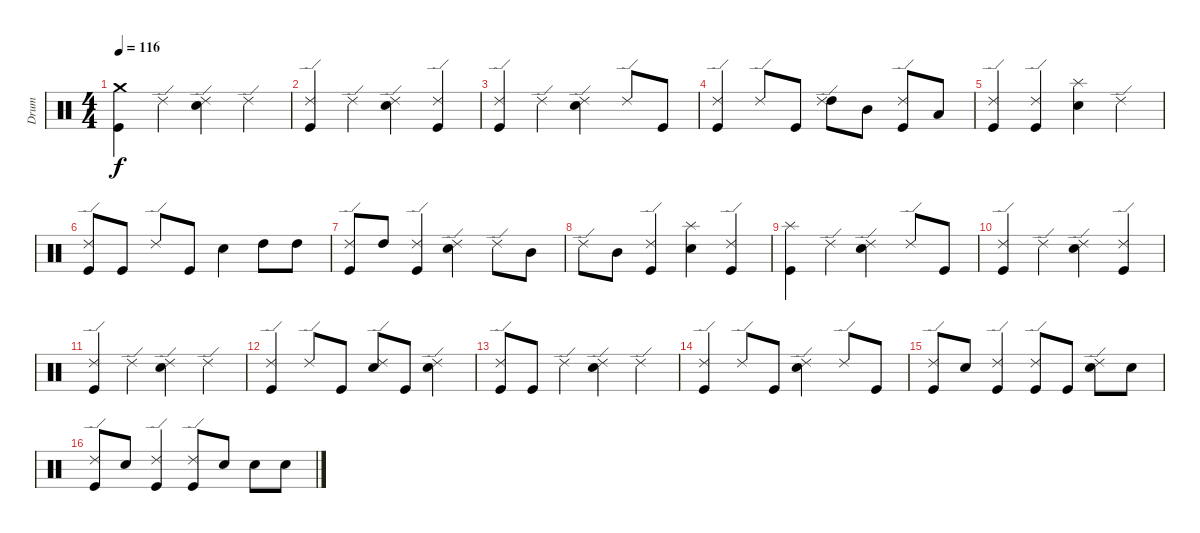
\track ("Drum" "Drum") {instrument percussion}
\staff {score}
\articulation defaults
\ts (4 4)
\tempo 116
\clef neutral
\ks c
("Kick (hit)" "Crash medium (hit)").4{dy f} "Ride (edge) 2".4 ("Electric Snare (hit)" "Ride (edge) 2").4 "Ride (edge) 2".4 |
("Kick (hit)" "Ride (edge) 2").4 "Ride (edge) 2".4 ("Electric Snare (hit)" "Ride (edge) 2").4 ("Kick (hit)" "Ride (edge) 2").4 |
("Kick (hit)" "Ride (edge) 2").4 "Ride (edge) 2".4 ("Electric Snare (hit)" "Ride (edge) 2").4 "Ride (edge) 2".8 "Kick (hit)".8 |
("Kick (hit)" "Ride (edge) 2").4 "Ride (edge) 2".8 "Kick (hit)".8 ("High Tom (hit)" "Ride (edge) 2").8 "Mid Tom (hit)".8 ("Kick (hit)" "Ride (edge) 2").8 "Low Tom (hit)".8 |
("Kick (hit)" "Ride (edge) 2").4 ("Kick (hit)" "Ride (edge) 2").4 ("Electric Snare (hit)" "Splash (hit)").4 "Ride (edge) 2".4 |
("Kick (hit)" "Ride (edge) 2").8 "Kick (hit)".8 "Ride (edge) 2".8 "Kick (hit)".8 "Electric Snare (hit)".4 "High Tom (hit)".8 "High Tom (hit)".8 |
("Kick (hit)" "Ride (edge) 2").8 "High Tom (hit)".8 ("Kick (hit)" "Ride (edge) 2").4 ("Electric Snare (hit)" "Ride (edge) 2").4 "Ride (edge) 2".8 "Mid Tom (hit)".8 |
"Ride (edge) 2".8 "Mid Tom (hit)".8 ("Kick (hit)" "Ride (edge) 2").4 ("Electric Snare (hit)" "Splash (hit)").4 ("Kick (hit)" "Ride (edge) 2").4 |
("Kick (hit)" "Splash (hit)").4 "Ride (edge) 2".4 ("Electric Snare (hit)" "Ride (edge) 2").4 "Ride (edge) 2".8 "Kick (hit)".8 |
("Kick (hit)" "Ride (edge) 2").4 "Ride (edge) 2".4 ("Electric Snare (hit)" "Ride (edge) 2").4 ("Kick (hit)" "Ride (edge) 2").4 |
("Kick (hit)" "Ride (edge) 2").4 "Ride (edge) 2".4 ("Electric Snare (hit)" "Ride (edge) 2").4 "Ride (edge) 2".4 |
("Kick (hit)" "Ride (edge) 2").4 "Ride (edge) 2".8 "Kick (hit)".8 ("Electric Snare (hit)" "Ride (edge) 2").8 "Kick (hit)".8 ("Electric Snare (hit)" "Ride (edge) 2").4 |
("Kick (hit)" "Ride (edge) 2").8 "Kick (hit)".8 "Ride (edge) 2".4 ("Electric Snare (hit)" "Ride (edge) 2").4 "Ride (edge) 2".4 |
("Kick (hit)" "Ride (edge) 2").4 "Ride (edge) 2".8 "Kick (hit)".8 ("Electric Snare (hit)" "Ride (edge) 2").4 "Ride (edge) 2".8 "Kick (hit)".8 |
("Kick (hit)" "Ride (edge) 2").8 "Electric Snare (hit)".8 ("Kick (hit)" "Ride (edge) 2").4 ("Kick (hit)" "Ride (edge) 2").8 "Kick (hit)".8 ("Electric Snare (hit)" "Ride (edge) 2").8 "Electric Snare (hit)".8 |
("Kick (hit)" "Ride (edge) 2").8 "Electric Snare (hit)".8 ("Kick (hit)" "Ride (edge) 2").4 ("Kick (hit)" "Ride (edge) 2").8 "Electric Snare (hit)".8 "Electric Snare (hit)".8 "Electric Snare (hit)".8
